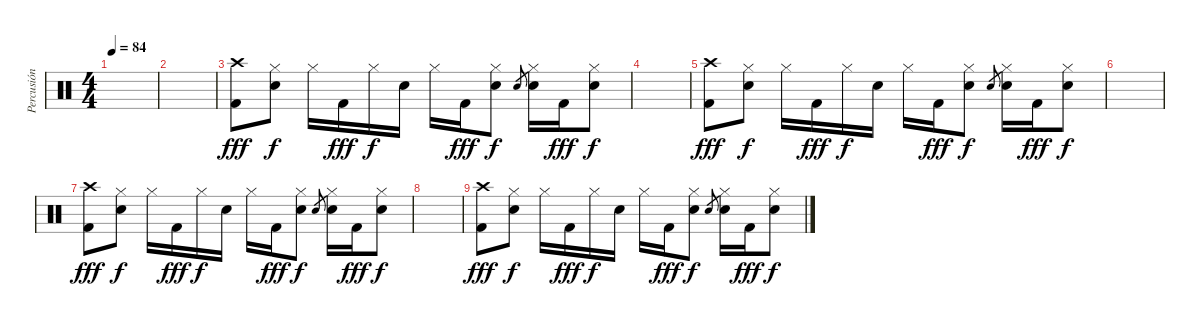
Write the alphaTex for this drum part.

\track ("Percusión" "Percusión") {instrument percussion}
\staff {score}
\articulation defaults
\ts (4 4)
\tempo 84
\clef neutral
\ks c
|
|
("Kick (hit) 2" "Crash high (hit)").8{dy fff volume 7} ("Electric Snare (hit)" "Hi-Hat (closed)").8{dy f} "Hi-Hat (closed)".16 "Kick (hit) 2".16{dy fff} "Hi-Hat (closed)".16{dy f} "Electric Snare (hit)".16 "Hi-Hat (closed)".16 "Kick (hit) 2".16{dy fff} ("Electric Snare (hit)" "Hi-Hat (closed)").8{dy f} "Electric Snare (hit)".8{gr} ("Electric Snare (hit)" "Hi-Hat (closed)").16 "Kick (hit) 2".16{dy fff} ("Electric Snare (hit)" "Hi-Hat (closed)").8{dy f} |
|
("Kick (hit) 2" "Crash high (hit)").8{dy fff} ("Electric Snare (hit)" "Hi-Hat (closed)").8{dy f} "Hi-Hat (closed)".16 "Kick (hit) 2".16{dy fff} "Hi-Hat (closed)".16{dy f} "Electric Snare (hit)".16 "Hi-Hat (closed)".16 "Kick (hit) 2".16{dy fff} ("Electric Snare (hit)" "Hi-Hat (closed)").8{dy f} "Electric Snare (hit)".8{gr} ("Electric Snare (hit)" "Hi-Hat (closed)").16 "Kick (hit) 2".16{dy fff} ("Electric Snare (hit)" "Hi-Hat (closed)").8{dy f} |
|
("Kick (hit) 2" "Crash high (hit)").8{dy fff volume 0} ("Electric Snare (hit)" "Hi-Hat (closed)").8{dy f} "Hi-Hat (closed)".16 "Kick (hit) 2".16{dy fff} "Hi-Hat (closed)".16{dy f} "Electric Snare (hit)".16 "Hi-Hat (closed)".16 "Kick (hit) 2".16{dy fff} ("Electric Snare (hit)" "Hi-Hat (closed)").8{dy f} "Electric Snare (hit)".8{gr} ("Electric Snare (hit)" "Hi-Hat (closed)").16 "Kick (hit) 2".16{dy fff} ("Electric Snare (hit)" "Hi-Hat (closed)").8{dy f} |
|
("Kick (hit) 2" "Crash high (hit)").8{dy fff} ("Electric Snare (hit)" "Hi-Hat (closed)").8{dy f} "Hi-Hat (closed)".16 "Kick (hit) 2".16{dy fff} "Hi-Hat (closed)".16{dy f} "Electric Snare (hit)".16 "Hi-Hat (closed)".16 "Kick (hit) 2".16{dy fff} ("Electric Snare (hit)" "Hi-Hat (closed)").8{dy f} "Electric Snare (hit)".8{gr} ("Electric Snare (hit)" "Hi-Hat (closed)").16 "Kick (hit) 2".16{dy fff} ("Electric Snare (hit)" "Hi-Hat (closed)").8{dy f}
